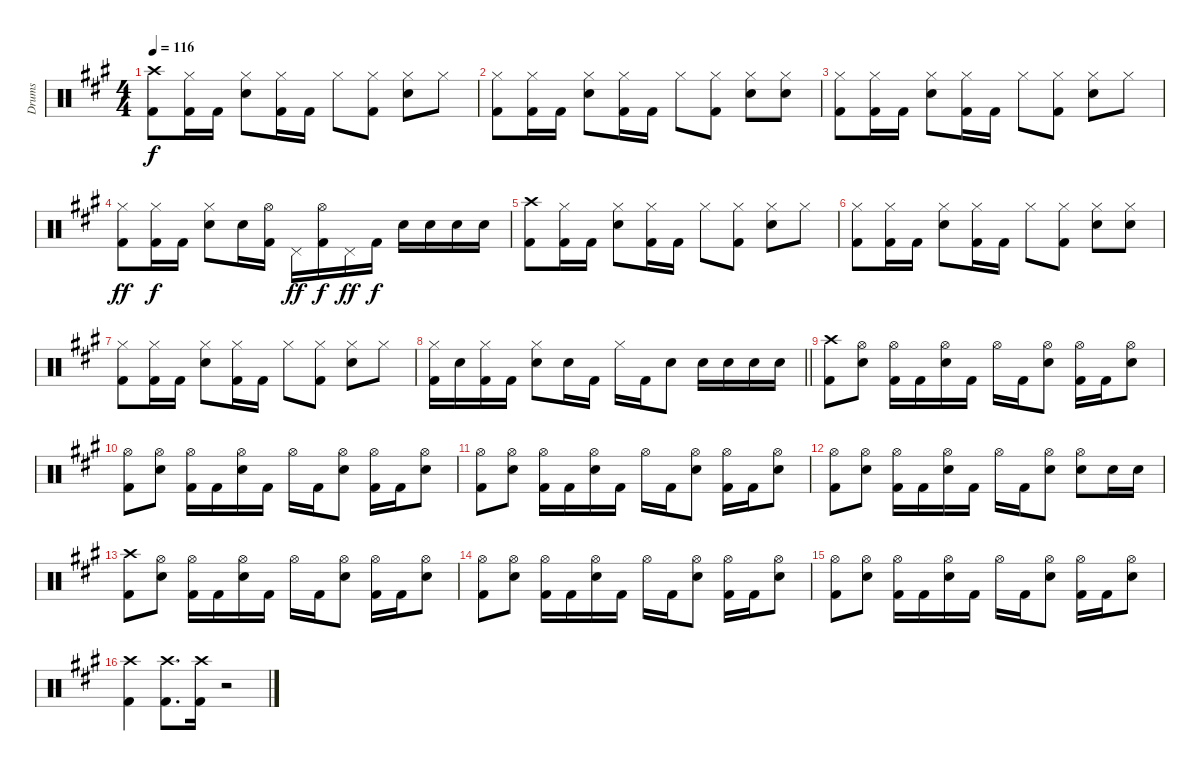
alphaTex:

\track ("Drums" "Drums") {instrument percussion}
\staff {score}
\articulation defaults
\ts (4 4)
\tempo 116
\clef neutral
\ks a
("Crash high (hit)" "Kick (hit) 2").8{dy f} ("Hi-Hat (closed)" "Kick (hit) 2").16 "Kick (hit) 2".16 ("Hi-Hat (closed)" "Snare (hit) 2").8 ("Hi-Hat (closed)" "Kick (hit) 2").16 "Kick (hit) 2".16 "Hi-Hat (closed)".8 ("Hi-Hat (closed)" "Kick (hit) 2").8 ("Hi-Hat (closed)" "Snare (hit) 2").8 "Hi-Hat (closed)".8 |
("Hi-Hat (closed)" "Kick (hit) 2").8 ("Hi-Hat (closed)" "Kick (hit) 2").16 "Kick (hit) 2".16 ("Hi-Hat (closed)" "Snare (hit) 2").8 ("Hi-Hat (closed)" "Kick (hit) 2").16 "Kick (hit) 2".16 "Hi-Hat (closed)".8 ("Hi-Hat (closed)" "Kick (hit) 2").8 ("Hi-Hat (closed)" "Snare (hit) 2").8 ("Hi-Hat (closed)" "Snare (hit) 2").8 |
("Hi-Hat (closed)" "Kick (hit) 2").8 ("Hi-Hat (closed)" "Kick (hit) 2").16 "Kick (hit) 2".16 ("Hi-Hat (closed)" "Snare (hit) 2").8 ("Hi-Hat (closed)" "Kick (hit) 2").16 "Kick (hit) 2".16 "Hi-Hat (closed)".8 ("Hi-Hat (closed)" "Kick (hit) 2").8 ("Hi-Hat (closed)" "Snare (hit) 2").8 "Hi-Hat (closed)".8 |
("Hi-Hat (closed)" "Kick (hit) 2").8{dy ff} ("Hi-Hat (closed)" "Kick (hit) 2").16{dy f} "Kick (hit) 2".16 ("Hi-Hat (closed)" "Snare (hit) 2").8 "Snare (hit) 2".16 ("Hi-Hat (open)" "Kick (hit) 2").16 "Pedal Hi-Hat (hit)".16{dy ff} ("Hi-Hat (open)" "Kick (hit) 2").16{dy f} "Pedal Hi-Hat (hit)".16{dy ff} "Kick (hit) 2".16{dy f} "Snare (hit) 2".16 "Snare (hit) 2".16 "Snare (hit) 2".16 "Snare (hit) 2".16 |
("Crash high (hit)" "Kick (hit) 2").8 ("Hi-Hat (closed)" "Kick (hit) 2").16 "Kick (hit) 2".16 ("Hi-Hat (closed)" "Snare (hit) 2").8 ("Hi-Hat (closed)" "Kick (hit) 2").16 "Kick (hit) 2".16 "Hi-Hat (closed)".8 ("Hi-Hat (closed)" "Kick (hit) 2").8 ("Hi-Hat (closed)" "Snare (hit) 2").8 "Hi-Hat (closed)".8 |
("Hi-Hat (closed)" "Kick (hit) 2").8 ("Hi-Hat (closed)" "Kick (hit) 2").16 "Kick (hit) 2".16 ("Hi-Hat (closed)" "Snare (hit) 2").8 ("Hi-Hat (closed)" "Kick (hit) 2").16 "Kick (hit) 2".16 "Hi-Hat (closed)".8 ("Hi-Hat (closed)" "Kick (hit) 2").8 ("Hi-Hat (closed)" "Snare (hit) 2").8 ("Hi-Hat (closed)" "Snare (hit) 2").8 |
("Hi-Hat (closed)" "Kick (hit) 2").8 ("Hi-Hat (closed)" "Kick (hit) 2").16 "Kick (hit) 2".16 ("Hi-Hat (closed)" "Snare (hit) 2").8 ("Hi-Hat (closed)" "Kick (hit) 2").16 "Kick (hit) 2".16 "Hi-Hat (closed)".8 ("Hi-Hat (closed)" "Kick (hit) 2").8 ("Hi-Hat (closed)" "Snare (hit) 2").8 "Hi-Hat (closed)".8 |
\barLineRight lightlight
("Hi-Hat (closed)" "Kick (hit) 2").16 "Snare (hit) 2".16 ("Hi-Hat (closed)" "Kick (hit) 2").16 "Kick (hit) 2".16 ("Hi-Hat (closed)" "Snare (hit) 2").8 "Snare (hit) 2".16 "Kick (hit) 2".16 "Hi-Hat (closed)".16 "Kick (hit) 2".16 "Snare (hit) 2".8 "Snare (hit) 2".16 "Snare (hit) 2".16 "Snare (hit) 2".16 "Snare (hit) 2".16 |
("Crash high (hit)" "Kick (hit) 2").8 ("Hi-Hat (open)" "Snare (hit) 2").8 ("Hi-Hat (open)" "Kick (hit) 2").16 "Kick (hit) 2".16 ("Snare (hit) 2" "Hi-Hat (open)").16 "Kick (hit) 2".16 "Hi-Hat (open)".16 "Kick (hit) 2".16 ("Snare (hit) 2" "Hi-Hat (open)").8 ("Hi-Hat (open)" "Kick (hit) 2").16 "Kick (hit) 2".16 ("Hi-Hat (open)" "Snare (hit) 2").8 |
("Hi-Hat (open)" "Kick (hit) 2").8 ("Hi-Hat (open)" "Snare (hit) 2").8 ("Hi-Hat (open)" "Kick (hit) 2").16 "Kick (hit) 2".16 ("Snare (hit) 2" "Hi-Hat (open)").16 "Kick (hit) 2".16 "Hi-Hat (open)".16 "Kick (hit) 2".16 ("Snare (hit) 2" "Hi-Hat (open)").8 ("Hi-Hat (open)" "Kick (hit) 2").16 "Kick (hit) 2".16 ("Hi-Hat (open)" "Snare (hit) 2").8 |
("Hi-Hat (open)" "Kick (hit) 2").8 ("Hi-Hat (open)" "Snare (hit) 2").8 ("Hi-Hat (open)" "Kick (hit) 2").16 "Kick (hit) 2".16 ("Snare (hit) 2" "Hi-Hat (open)").16 "Kick (hit) 2".16 "Hi-Hat (open)".16 "Kick (hit) 2".16 ("Snare (hit) 2" "Hi-Hat (open)").8 ("Hi-Hat (open)" "Kick (hit) 2").16 "Kick (hit) 2".16 ("Hi-Hat (open)" "Snare (hit) 2").8 |
("Hi-Hat (open)" "Kick (hit) 2").8 ("Hi-Hat (open)" "Snare (hit) 2").8 ("Hi-Hat (open)" "Kick (hit) 2").16 "Kick (hit) 2".16 ("Snare (hit) 2" "Hi-Hat (open)").16 "Kick (hit) 2".16 "Hi-Hat (open)".16 "Kick (hit) 2".16 ("Snare (hit) 2" "Hi-Hat (open)").8 ("Hi-Hat (open)" "Snare (hit) 2").8 "Snare (hit) 2".16 "Snare (hit) 2".16 |
("Crash high (hit)" "Kick (hit) 2").8 ("Hi-Hat (open)" "Snare (hit) 2").8 ("Hi-Hat (open)" "Kick (hit) 2").16 "Kick (hit) 2".16 ("Snare (hit) 2" "Hi-Hat (open)").16 "Kick (hit) 2".16 "Hi-Hat (open)".16 "Kick (hit) 2".16 ("Snare (hit) 2" "Hi-Hat (open)").8 ("Hi-Hat (open)" "Kick (hit) 2").16 "Kick (hit) 2".16 ("Hi-Hat (open)" "Snare (hit) 2").8 |
("Hi-Hat (open)" "Kick (hit) 2").8 ("Hi-Hat (open)" "Snare (hit) 2").8 ("Hi-Hat (open)" "Kick (hit) 2").16 "Kick (hit) 2".16 ("Snare (hit) 2" "Hi-Hat (open)").16 "Kick (hit) 2".16 "Hi-Hat (open)".16 "Kick (hit) 2".16 ("Snare (hit) 2" "Hi-Hat (open)").8 ("Hi-Hat (open)" "Kick (hit) 2").16 "Kick (hit) 2".16 ("Hi-Hat (open)" "Snare (hit) 2").8 |
("Hi-Hat (open)" "Kick (hit) 2").8 ("Hi-Hat (open)" "Snare (hit) 2").8 ("Hi-Hat (open)" "Kick (hit) 2").16 "Kick (hit) 2".16 ("Snare (hit) 2" "Hi-Hat (open)").16 "Kick (hit) 2".16 "Hi-Hat (open)".16 "Kick (hit) 2".16 ("Snare (hit) 2" "Hi-Hat (open)").8 ("Hi-Hat (open)" "Kick (hit) 2").16 "Kick (hit) 2".16 ("Hi-Hat (open)" "Snare (hit) 2").8 |
("Crash high (hit)" "Kick (hit) 2").4 ("Crash high (hit)" "Kick (hit) 2").8{d} ("Crash high (hit)" "Kick (hit) 2").16 r.2
